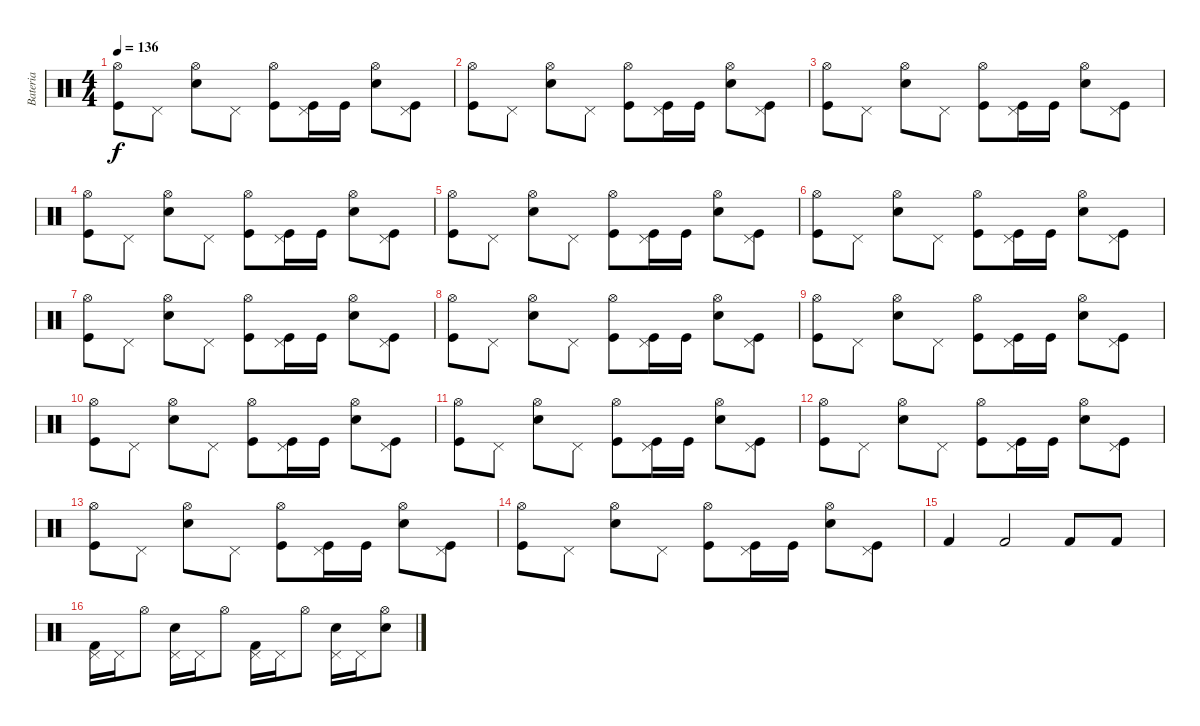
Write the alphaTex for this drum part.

\track ("Bateria" "Bateria") {instrument percussion}
\staff {score}
\articulation defaults
\ts (4 4)
\tempo 136
\clef neutral
\ks c
("Hi-Hat (open)" "Kick (hit)").8{dy f} "Pedal Hi-Hat (hit)".8 ("Hi-Hat (open)" "Snare (hit) 2").8 "Pedal Hi-Hat (hit)".8 ("Hi-Hat (open)" "Kick (hit)").8 ("Pedal Hi-Hat (hit)" "Kick (hit)").16 "Kick (hit)".16 ("Hi-Hat (open)" "Snare (hit) 2").8 ("Pedal Hi-Hat (hit)" "Kick (hit)").8 |
("Hi-Hat (open)" "Kick (hit)").8 "Pedal Hi-Hat (hit)".8 ("Hi-Hat (open)" "Snare (hit) 2").8 "Pedal Hi-Hat (hit)".8 ("Hi-Hat (open)" "Kick (hit)").8 ("Pedal Hi-Hat (hit)" "Kick (hit)").16 "Kick (hit)".16 ("Hi-Hat (open)" "Snare (hit) 2").8 ("Pedal Hi-Hat (hit)" "Kick (hit)").8 |
("Hi-Hat (open)" "Kick (hit)").8 "Pedal Hi-Hat (hit)".8 ("Hi-Hat (open)" "Snare (hit) 2").8 "Pedal Hi-Hat (hit)".8 ("Hi-Hat (open)" "Kick (hit)").8 ("Pedal Hi-Hat (hit)" "Kick (hit)").16 "Kick (hit)".16 ("Hi-Hat (open)" "Snare (hit) 2").8 ("Pedal Hi-Hat (hit)" "Kick (hit)").8 |
("Hi-Hat (open)" "Kick (hit)").8 "Pedal Hi-Hat (hit)".8 ("Hi-Hat (open)" "Snare (hit) 2").8 "Pedal Hi-Hat (hit)".8 ("Hi-Hat (open)" "Kick (hit)").8 ("Pedal Hi-Hat (hit)" "Kick (hit)").16 "Kick (hit)".16 ("Hi-Hat (open)" "Snare (hit) 2").8 ("Pedal Hi-Hat (hit)" "Kick (hit)").8 |
("Hi-Hat (open)" "Kick (hit)").8 "Pedal Hi-Hat (hit)".8 ("Hi-Hat (open)" "Snare (hit) 2").8 "Pedal Hi-Hat (hit)".8 ("Hi-Hat (open)" "Kick (hit)").8 ("Pedal Hi-Hat (hit)" "Kick (hit)").16 "Kick (hit)".16 ("Hi-Hat (open)" "Snare (hit) 2").8 ("Pedal Hi-Hat (hit)" "Kick (hit)").8 |
("Hi-Hat (open)" "Kick (hit)").8 "Pedal Hi-Hat (hit)".8 ("Hi-Hat (open)" "Snare (hit) 2").8 "Pedal Hi-Hat (hit)".8 ("Hi-Hat (open)" "Kick (hit)").8 ("Pedal Hi-Hat (hit)" "Kick (hit)").16 "Kick (hit)".16 ("Hi-Hat (open)" "Snare (hit) 2").8 ("Pedal Hi-Hat (hit)" "Kick (hit)").8 |
("Hi-Hat (open)" "Kick (hit)").8 "Pedal Hi-Hat (hit)".8 ("Hi-Hat (open)" "Snare (hit) 2").8 "Pedal Hi-Hat (hit)".8 ("Hi-Hat (open)" "Kick (hit)").8 ("Pedal Hi-Hat (hit)" "Kick (hit)").16 "Kick (hit)".16 ("Hi-Hat (open)" "Snare (hit) 2").8 ("Pedal Hi-Hat (hit)" "Kick (hit)").8 |
("Hi-Hat (open)" "Kick (hit)").8 "Pedal Hi-Hat (hit)".8 ("Hi-Hat (open)" "Snare (hit) 2").8 "Pedal Hi-Hat (hit)".8 ("Hi-Hat (open)" "Kick (hit)").8 ("Pedal Hi-Hat (hit)" "Kick (hit)").16 "Kick (hit)".16 ("Hi-Hat (open)" "Snare (hit) 2").8 ("Pedal Hi-Hat (hit)" "Kick (hit)").8 |
("Hi-Hat (open)" "Kick (hit)").8 "Pedal Hi-Hat (hit)".8 ("Hi-Hat (open)" "Snare (hit) 2").8 "Pedal Hi-Hat (hit)".8 ("Hi-Hat (open)" "Kick (hit)").8 ("Pedal Hi-Hat (hit)" "Kick (hit)").16 "Kick (hit)".16 ("Hi-Hat (open)" "Snare (hit) 2").8 ("Pedal Hi-Hat (hit)" "Kick (hit)").8 |
("Hi-Hat (open)" "Kick (hit)").8 "Pedal Hi-Hat (hit)".8 ("Hi-Hat (open)" "Snare (hit) 2").8 "Pedal Hi-Hat (hit)".8 ("Hi-Hat (open)" "Kick (hit)").8 ("Pedal Hi-Hat (hit)" "Kick (hit)").16 "Kick (hit)".16 ("Hi-Hat (open)" "Snare (hit) 2").8 ("Pedal Hi-Hat (hit)" "Kick (hit)").8 |
("Hi-Hat (open)" "Kick (hit)").8 "Pedal Hi-Hat (hit)".8 ("Hi-Hat (open)" "Snare (hit) 2").8 "Pedal Hi-Hat (hit)".8 ("Hi-Hat (open)" "Kick (hit)").8 ("Pedal Hi-Hat (hit)" "Kick (hit)").16 "Kick (hit)".16 ("Hi-Hat (open)" "Snare (hit) 2").8 ("Pedal Hi-Hat (hit)" "Kick (hit)").8 |
("Hi-Hat (open)" "Kick (hit)").8 "Pedal Hi-Hat (hit)".8 ("Hi-Hat (open)" "Snare (hit) 2").8 "Pedal Hi-Hat (hit)".8 ("Hi-Hat (open)" "Kick (hit)").8 ("Pedal Hi-Hat (hit)" "Kick (hit)").16 "Kick (hit)".16 ("Hi-Hat (open)" "Snare (hit) 2").8 ("Pedal Hi-Hat (hit)" "Kick (hit)").8 |
("Hi-Hat (open)" "Kick (hit)").8 "Pedal Hi-Hat (hit)".8 ("Hi-Hat (open)" "Snare (hit) 2").8 "Pedal Hi-Hat (hit)".8 ("Hi-Hat (open)" "Kick (hit)").8 ("Pedal Hi-Hat (hit)" "Kick (hit)").16 "Kick (hit)".16 ("Hi-Hat (open)" "Snare (hit) 2").8 ("Pedal Hi-Hat (hit)" "Kick (hit)").8 |
("Hi-Hat (open)" "Kick (hit)").8 "Pedal Hi-Hat (hit)".8 ("Hi-Hat (open)" "Snare (hit) 2").8 "Pedal Hi-Hat (hit)".8 ("Hi-Hat (open)" "Kick (hit)").8 ("Pedal Hi-Hat (hit)" "Kick (hit)").16 "Kick (hit)".16 ("Hi-Hat (open)" "Snare (hit) 2").8 ("Pedal Hi-Hat (hit)" "Kick (hit)").8 |
"Kick (hit) 2".4 "Kick (hit) 2".2 "Kick (hit) 2".8 "Kick (hit) 2".8 |
("Pedal Hi-Hat (hit)" "Kick (hit) 2").16 "Pedal Hi-Hat (hit)".16 "Hi-Hat (open)".8 ("Pedal Hi-Hat (hit)" "Electric Snare (hit)").16 "Pedal Hi-Hat (hit)".16 "Hi-Hat (open)".8 ("Pedal Hi-Hat (hit)" "Kick (hit) 2").16 "Pedal Hi-Hat (hit)".16 "Hi-Hat (open)".8 ("Pedal Hi-Hat (hit)" "Electric Snare (hit)").16 "Pedal Hi-Hat (hit)".16 ("Hi-Hat (open)" "Electric Snare (hit)").8
